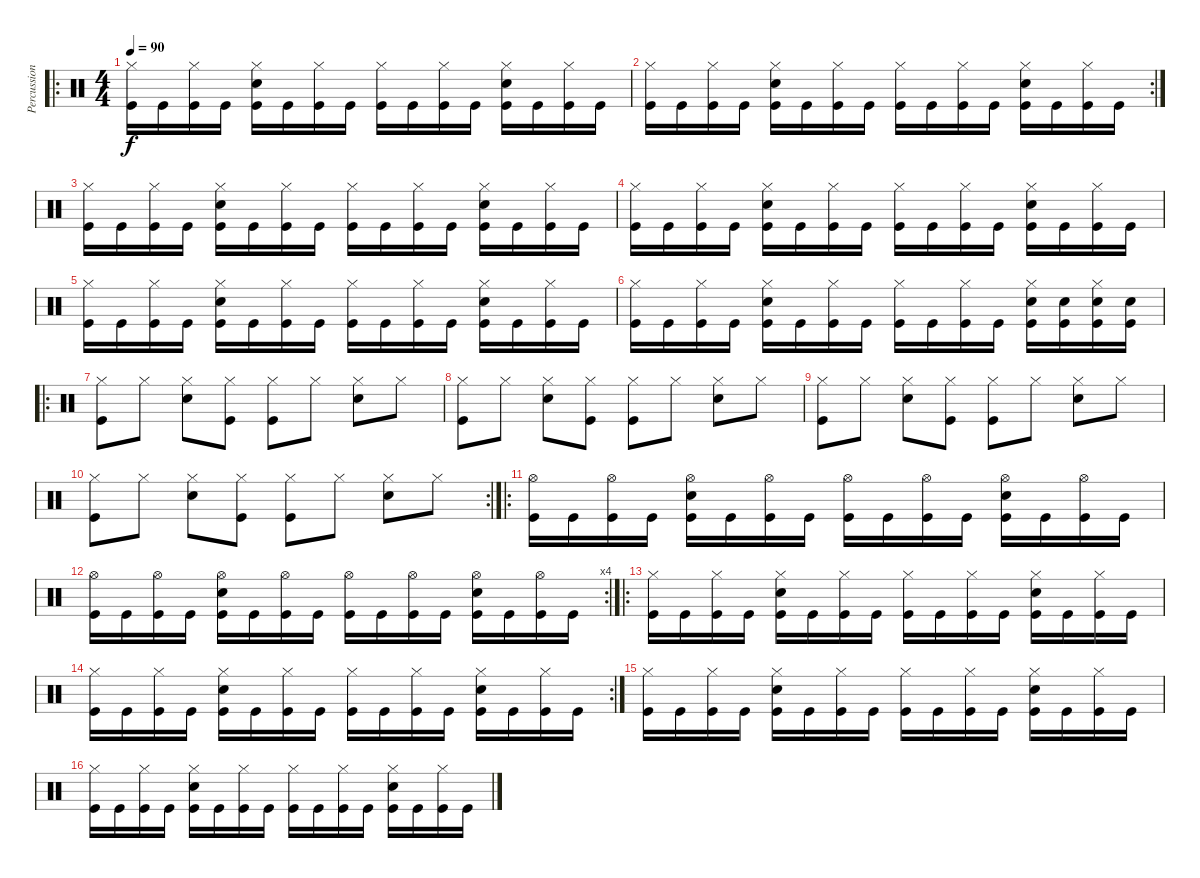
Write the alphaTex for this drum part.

\track ("Percussion" "Percussion") {instrument percussion}
\staff {score}
\articulation defaults
\ro
\ts (4 4)
\tempo 90
\clef neutral
\ks c
("Hi-Hat (closed)" "Kick (hit)").16{dy f} "Kick (hit)".16 ("Hi-Hat (closed)" "Kick (hit)").16 "Kick (hit)".16 ("Hi-Hat (closed)" "Electric Snare (hit)" "Kick (hit)").16 "Kick (hit)".16 ("Hi-Hat (closed)" "Kick (hit)").16 "Kick (hit)".16 ("Hi-Hat (closed)" "Kick (hit)").16 "Kick (hit)".16 ("Hi-Hat (closed)" "Kick (hit)").16 "Kick (hit)".16 ("Hi-Hat (closed)" "Electric Snare (hit)" "Kick (hit)").16 "Kick (hit)".16 ("Hi-Hat (closed)" "Kick (hit)").16 "Kick (hit)".16 |
\rc 2
("Hi-Hat (closed)" "Kick (hit)").16 "Kick (hit)".16 ("Hi-Hat (closed)" "Kick (hit)").16 "Kick (hit)".16 ("Hi-Hat (closed)" "Electric Snare (hit)" "Kick (hit)").16 "Kick (hit)".16 ("Hi-Hat (closed)" "Kick (hit)").16 "Kick (hit)".16 ("Hi-Hat (closed)" "Kick (hit)").16 "Kick (hit)".16 ("Hi-Hat (closed)" "Kick (hit)").16 "Kick (hit)".16 ("Hi-Hat (closed)" "Electric Snare (hit)" "Kick (hit)").16 "Kick (hit)".16 ("Hi-Hat (closed)" "Kick (hit)").16 "Kick (hit)".16 |
("Hi-Hat (closed)" "Kick (hit)").16 "Kick (hit)".16 ("Hi-Hat (closed)" "Kick (hit)").16 "Kick (hit)".16 ("Hi-Hat (closed)" "Electric Snare (hit)" "Kick (hit)").16 "Kick (hit)".16 ("Hi-Hat (closed)" "Kick (hit)").16 "Kick (hit)".16 ("Hi-Hat (closed)" "Kick (hit)").16 "Kick (hit)".16 ("Hi-Hat (closed)" "Kick (hit)").16 "Kick (hit)".16 ("Hi-Hat (closed)" "Electric Snare (hit)" "Kick (hit)").16 "Kick (hit)".16 ("Hi-Hat (closed)" "Kick (hit)").16 "Kick (hit)".16 |
("Hi-Hat (closed)" "Kick (hit)").16 "Kick (hit)".16 ("Hi-Hat (closed)" "Kick (hit)").16 "Kick (hit)".16 ("Hi-Hat (closed)" "Electric Snare (hit)" "Kick (hit)").16 "Kick (hit)".16 ("Hi-Hat (closed)" "Kick (hit)").16 "Kick (hit)".16 ("Hi-Hat (closed)" "Kick (hit)").16 "Kick (hit)".16 ("Hi-Hat (closed)" "Kick (hit)").16 "Kick (hit)".16 ("Hi-Hat (closed)" "Electric Snare (hit)" "Kick (hit)").16 "Kick (hit)".16 ("Hi-Hat (closed)" "Kick (hit)").16 "Kick (hit)".16 |
("Hi-Hat (closed)" "Kick (hit)").16 "Kick (hit)".16 ("Hi-Hat (closed)" "Kick (hit)").16 "Kick (hit)".16 ("Hi-Hat (closed)" "Electric Snare (hit)" "Kick (hit)").16 "Kick (hit)".16 ("Hi-Hat (closed)" "Kick (hit)").16 "Kick (hit)".16 ("Hi-Hat (closed)" "Kick (hit)").16 "Kick (hit)".16 ("Hi-Hat (closed)" "Kick (hit)").16 "Kick (hit)".16 ("Hi-Hat (closed)" "Electric Snare (hit)" "Kick (hit)").16 "Kick (hit)".16 ("Hi-Hat (closed)" "Kick (hit)").16 "Kick (hit)".16 |
("Hi-Hat (closed)" "Kick (hit)").16 "Kick (hit)".16 ("Hi-Hat (closed)" "Kick (hit)").16 "Kick (hit)".16 ("Hi-Hat (closed)" "Electric Snare (hit)" "Kick (hit)").16 "Kick (hit)".16 ("Hi-Hat (closed)" "Kick (hit)").16 "Kick (hit)".16 ("Hi-Hat (closed)" "Kick (hit)").16 "Kick (hit)".16 ("Hi-Hat (closed)" "Kick (hit)").16 "Kick (hit)".16 ("Hi-Hat (closed)" "Electric Snare (hit)" "Kick (hit)").16 ("Electric Snare (hit)" "Kick (hit)").16 ("Hi-Hat (closed)" "Electric Snare (hit)" "Kick (hit)").16 ("Electric Snare (hit)" "Kick (hit)").16 |
\ro
("Hi-Hat (closed)" "Kick (hit)").8 "Hi-Hat (closed)".8 ("Hi-Hat (closed)" "Electric Snare (hit)").8 ("Hi-Hat (closed)" "Kick (hit)").8 ("Hi-Hat (closed)" "Kick (hit)").8 "Hi-Hat (closed)".8 ("Hi-Hat (closed)" "Electric Snare (hit)").8 "Hi-Hat (closed)".8 |
("Hi-Hat (closed)" "Kick (hit)").8 "Hi-Hat (closed)".8 ("Hi-Hat (closed)" "Electric Snare (hit)").8 ("Hi-Hat (closed)" "Kick (hit)").8 ("Hi-Hat (closed)" "Kick (hit)").8 "Hi-Hat (closed)".8 ("Hi-Hat (closed)" "Electric Snare (hit)").8 "Hi-Hat (closed)".8 |
("Hi-Hat (closed)" "Kick (hit)").8 "Hi-Hat (closed)".8 ("Hi-Hat (closed)" "Electric Snare (hit)").8 ("Hi-Hat (closed)" "Kick (hit)").8 ("Hi-Hat (closed)" "Kick (hit)").8 "Hi-Hat (closed)".8 ("Hi-Hat (closed)" "Electric Snare (hit)").8 "Hi-Hat (closed)".8 |
\rc 2
("Hi-Hat (closed)" "Kick (hit)").8 "Hi-Hat (closed)".8 ("Hi-Hat (closed)" "Electric Snare (hit)").8 ("Hi-Hat (closed)" "Kick (hit)").8 ("Hi-Hat (closed)" "Kick (hit)").8 "Hi-Hat (closed)".8 ("Hi-Hat (closed)" "Electric Snare (hit)").8 "Hi-Hat (closed)".8 |
\ro
("Hi-Hat (open)" "Kick (hit)").16 "Kick (hit)".16 ("Hi-Hat (open)" "Kick (hit)").16 "Kick (hit)".16 ("Hi-Hat (open)" "Electric Snare (hit)" "Kick (hit)").16 "Kick (hit)".16 ("Hi-Hat (open)" "Kick (hit)").16 "Kick (hit)".16 ("Hi-Hat (open)" "Kick (hit)").16 "Kick (hit)".16 ("Hi-Hat (open)" "Kick (hit)").16 "Kick (hit)".16 ("Hi-Hat (open)" "Electric Snare (hit)" "Kick (hit)").16 "Kick (hit)".16 ("Hi-Hat (open)" "Kick (hit)").16 "Kick (hit)".16 |
\rc 4
("Hi-Hat (open)" "Kick (hit)").16 "Kick (hit)".16 ("Hi-Hat (open)" "Kick (hit)").16 "Kick (hit)".16 ("Hi-Hat (open)" "Electric Snare (hit)" "Kick (hit)").16 "Kick (hit)".16 ("Hi-Hat (open)" "Kick (hit)").16 "Kick (hit)".16 ("Hi-Hat (open)" "Kick (hit)").16 "Kick (hit)".16 ("Hi-Hat (open)" "Kick (hit)").16 "Kick (hit)".16 ("Hi-Hat (open)" "Electric Snare (hit)" "Kick (hit)").16 "Kick (hit)".16 ("Hi-Hat (open)" "Kick (hit)").16 "Kick (hit)".16 |
\ro
("Hi-Hat (closed)" "Kick (hit)").16 "Kick (hit)".16 ("Hi-Hat (closed)" "Kick (hit)").16 "Kick (hit)".16 ("Hi-Hat (closed)" "Electric Snare (hit)" "Kick (hit)").16 "Kick (hit)".16 ("Hi-Hat (closed)" "Kick (hit)").16 "Kick (hit)".16 ("Hi-Hat (closed)" "Kick (hit)").16 "Kick (hit)".16 ("Hi-Hat (closed)" "Kick (hit)").16 "Kick (hit)".16 ("Hi-Hat (closed)" "Electric Snare (hit)" "Kick (hit)").16 "Kick (hit)".16 ("Hi-Hat (closed)" "Kick (hit)").16 "Kick (hit)".16 |
\rc 2
("Hi-Hat (closed)" "Kick (hit)").16 "Kick (hit)".16 ("Hi-Hat (closed)" "Kick (hit)").16 "Kick (hit)".16 ("Hi-Hat (closed)" "Electric Snare (hit)" "Kick (hit)").16 "Kick (hit)".16 ("Hi-Hat (closed)" "Kick (hit)").16 "Kick (hit)".16 ("Hi-Hat (closed)" "Kick (hit)").16 "Kick (hit)".16 ("Hi-Hat (closed)" "Kick (hit)").16 "Kick (hit)".16 ("Hi-Hat (closed)" "Electric Snare (hit)" "Kick (hit)").16 "Kick (hit)".16 ("Hi-Hat (closed)" "Kick (hit)").16 "Kick (hit)".16 |
("Hi-Hat (closed)" "Kick (hit)").16 "Kick (hit)".16 ("Hi-Hat (closed)" "Kick (hit)").16 "Kick (hit)".16 ("Hi-Hat (closed)" "Electric Snare (hit)" "Kick (hit)").16 "Kick (hit)".16 ("Hi-Hat (closed)" "Kick (hit)").16 "Kick (hit)".16 ("Hi-Hat (closed)" "Kick (hit)").16 "Kick (hit)".16 ("Hi-Hat (closed)" "Kick (hit)").16 "Kick (hit)".16 ("Hi-Hat (closed)" "Electric Snare (hit)" "Kick (hit)").16 "Kick (hit)".16 ("Hi-Hat (closed)" "Kick (hit)").16 "Kick (hit)".16 |
("Hi-Hat (closed)" "Kick (hit)").16 "Kick (hit)".16 ("Hi-Hat (closed)" "Kick (hit)").16 "Kick (hit)".16 ("Hi-Hat (closed)" "Electric Snare (hit)" "Kick (hit)").16 "Kick (hit)".16 ("Hi-Hat (closed)" "Kick (hit)").16 "Kick (hit)".16 ("Hi-Hat (closed)" "Kick (hit)").16 "Kick (hit)".16 ("Hi-Hat (closed)" "Kick (hit)").16 "Kick (hit)".16 ("Hi-Hat (closed)" "Electric Snare (hit)" "Kick (hit)").16 "Kick (hit)".16 ("Hi-Hat (closed)" "Kick (hit)").16 "Kick (hit)".16
